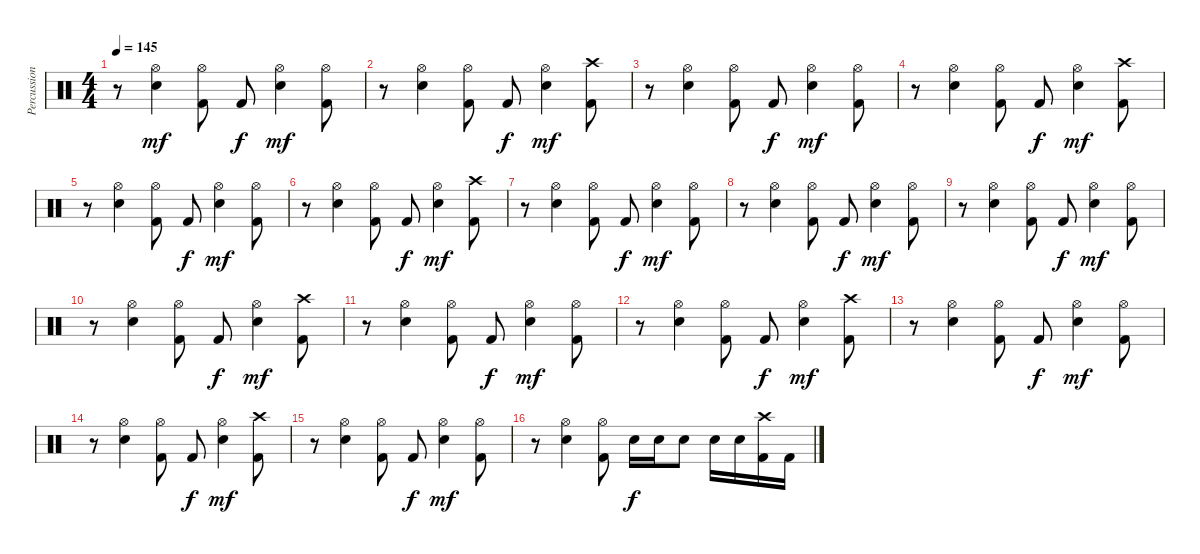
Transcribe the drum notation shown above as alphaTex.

\track ("Percussioni" "Percussion") {instrument percussion}
\staff {score}
\articulation defaults
\ts (4 4)
\tempo 145
\clef neutral
\ks c
r.8{dy mf} ("Snare (hit) 2" "Hi-Hat (open)").4 ("Kick (hit) 2" "Hi-Hat (open)").8 "Kick (hit) 2".8{dy f} ("Snare (hit) 2" "Hi-Hat (open)").4{dy mf} ("Kick (hit) 2" "Hi-Hat (open)").8 |
r.8 ("Snare (hit) 2" "Hi-Hat (open)").4 ("Kick (hit) 2" "Hi-Hat (open)").8 "Kick (hit) 2".8{dy f} ("Snare (hit) 2" "Hi-Hat (open)").4{dy mf} ("Kick (hit) 2" "Crash high (hit)").8 |
r.8 ("Snare (hit) 2" "Hi-Hat (open)").4 ("Kick (hit) 2" "Hi-Hat (open)").8 "Kick (hit) 2".8{dy f} ("Snare (hit) 2" "Hi-Hat (open)").4{dy mf} ("Kick (hit) 2" "Hi-Hat (open)").8 |
r.8 ("Snare (hit) 2" "Hi-Hat (open)").4 ("Kick (hit) 2" "Hi-Hat (open)").8 "Kick (hit) 2".8{dy f} ("Snare (hit) 2" "Hi-Hat (open)").4{dy mf} ("Kick (hit) 2" "Crash high (hit)").8 |
r.8 ("Snare (hit) 2" "Hi-Hat (open)").4 ("Kick (hit) 2" "Hi-Hat (open)").8 "Kick (hit) 2".8{dy f} ("Snare (hit) 2" "Hi-Hat (open)").4{dy mf} ("Kick (hit) 2" "Hi-Hat (open)").8 |
r.8 ("Snare (hit) 2" "Hi-Hat (open)").4 ("Kick (hit) 2" "Hi-Hat (open)").8 "Kick (hit) 2".8{dy f} ("Snare (hit) 2" "Hi-Hat (open)").4{dy mf} ("Kick (hit) 2" "Crash high (hit)").8 |
r.8 ("Snare (hit) 2" "Hi-Hat (open)").4 ("Kick (hit) 2" "Hi-Hat (open)").8 "Kick (hit) 2".8{dy f} ("Snare (hit) 2" "Hi-Hat (open)").4{dy mf} ("Kick (hit) 2" "Hi-Hat (open)").8 |
r.8 ("Snare (hit) 2" "Hi-Hat (open)").4 ("Kick (hit) 2" "Hi-Hat (open)").8 "Kick (hit) 2".8{dy f} ("Snare (hit) 2" "Hi-Hat (open)").4{dy mf} ("Kick (hit) 2" "Hi-Hat (open)").8 |
r.8 ("Snare (hit) 2" "Hi-Hat (open)").4 ("Kick (hit) 2" "Hi-Hat (open)").8 "Kick (hit) 2".8{dy f} ("Snare (hit) 2" "Hi-Hat (open)").4{dy mf} ("Kick (hit) 2" "Hi-Hat (open)").8 |
r.8 ("Snare (hit) 2" "Hi-Hat (open)").4 ("Kick (hit) 2" "Hi-Hat (open)").8 "Kick (hit) 2".8{dy f} ("Snare (hit) 2" "Hi-Hat (open)").4{dy mf} ("Kick (hit) 2" "Crash high (hit)").8 |
r.8 ("Snare (hit) 2" "Hi-Hat (open)").4 ("Kick (hit) 2" "Hi-Hat (open)").8 "Kick (hit) 2".8{dy f} ("Snare (hit) 2" "Hi-Hat (open)").4{dy mf} ("Kick (hit) 2" "Hi-Hat (open)").8 |
r.8 ("Snare (hit) 2" "Hi-Hat (open)").4 ("Kick (hit) 2" "Hi-Hat (open)").8 "Kick (hit) 2".8{dy f} ("Snare (hit) 2" "Hi-Hat (open)").4{dy mf} ("Kick (hit) 2" "Crash high (hit)").8 |
r.8 ("Snare (hit) 2" "Hi-Hat (open)").4 ("Kick (hit) 2" "Hi-Hat (open)").8 "Kick (hit) 2".8{dy f} ("Snare (hit) 2" "Hi-Hat (open)").4{dy mf} ("Kick (hit) 2" "Hi-Hat (open)").8 |
r.8 ("Snare (hit) 2" "Hi-Hat (open)").4 ("Kick (hit) 2" "Hi-Hat (open)").8 "Kick (hit) 2".8{dy f} ("Snare (hit) 2" "Hi-Hat (open)").4{dy mf} ("Kick (hit) 2" "Crash high (hit)").8 |
r.8 ("Snare (hit) 2" "Hi-Hat (open)").4 ("Kick (hit) 2" "Hi-Hat (open)").8 "Kick (hit) 2".8{dy f} ("Snare (hit) 2" "Hi-Hat (open)").4{dy mf} ("Kick (hit) 2" "Hi-Hat (open)").8 |
r.8 ("Snare (hit) 2" "Hi-Hat (open)").4 ("Kick (hit) 2" "Hi-Hat (open)").8 "Snare (hit) 2".16{dy f} "Snare (hit) 2".16 "Snare (hit) 2".8 "Snare (hit) 2".16 "Snare (hit) 2".16 ("Kick (hit) 2" "Crash high (hit)").16 "Kick (hit) 2".16
